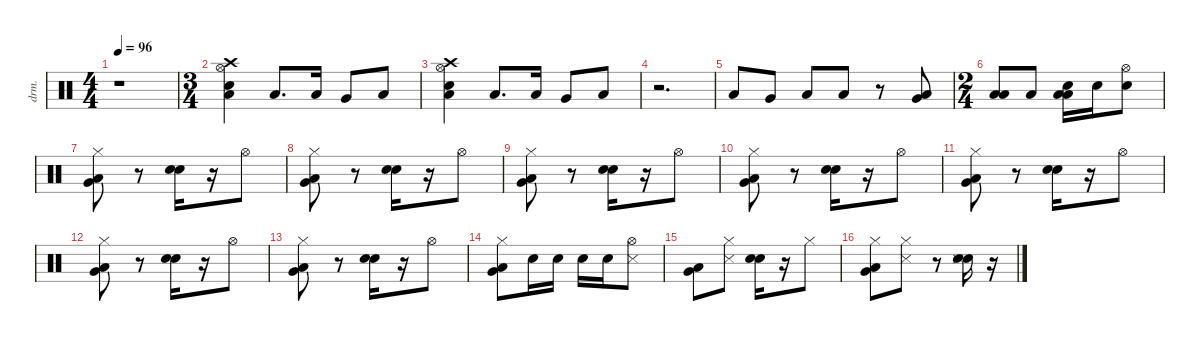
\defaultSystemsLayout 4
\hideDynamics
\bracketExtendMode nobrackets
\otherSystemsTrackNameOrientation horizontal
\track ("Percussion" "drm.") {instrument percussion}
\staff {score}
\articulation defaults
\ts (4 4)
\tempo 96
\clef neutral
\ks c
r.1{dy f} |
\ts (3 4)
("Crash high (hit)" "Hi-Hat (open)" "Snare (hit) 2" "Low Floor Tom (hit)").4 "Low Tom (hit)".8{d dy ff} "Low Tom (hit)".16 "Very Low Tom (hit)".8{dy fff} "Low Floor Tom (hit)".8{dy mp} |
("Crash high (hit)" "Hi-Hat (open)" "Snare (hit) 2" "Low Floor Tom (hit)").4{dy f} "Low Tom (hit)".8{d dy ff} "Low Tom (hit)".16 "Very Low Tom (hit)".8{dy fff} "Low Floor Tom (hit)".8{dy mp} |
r.2{d} |
"Low Tom (hit)".8{dy ff} "Very Low Tom (hit)".8 "Low Tom (hit)".8 "Low Tom (hit)".8{dy f} r.8 ("Very Low Tom (hit)" "Low Tom (hit)").8{dy fff} |
\ts (2 4)
("Low Floor Tom (hit)" "Low Tom (hit)").8{dy f} "Low Floor Tom (hit)".8 ("Snare (hit) 2" "Low Floor Tom (hit)" "Low Tom (hit)").16 "Snare (hit) 2".16{dy ff} ("Hi-Hat (open)" "Snare (hit) 2").8 |
("Hi-Hat (closed)" "Very Low Tom (hit)" "Low Floor Tom (hit)").8{dy f} r.8 ("Snare (hit) 2" "Snare (hit) 2").16{dy fff} r.16 "Hi-Hat (open)".8{dy f} |
("Hi-Hat (closed)" "Very Low Tom (hit)" "Low Floor Tom (hit)").8 r.8 ("Snare (hit) 2" "Snare (hit) 2").16{dy fff} r.16 "Hi-Hat (open)".8{dy f} |
("Hi-Hat (closed)" "Very Low Tom (hit)" "Low Floor Tom (hit)").8 r.8 ("Snare (hit) 2" "Snare (hit) 2").16{dy fff} r.16 "Hi-Hat (open)".8{dy f} |
("Hi-Hat (closed)" "Very Low Tom (hit)" "Low Floor Tom (hit)").8 r.8 ("Snare (hit) 2" "Snare (hit) 2").16{dy fff} r.16 "Hi-Hat (open)".8{dy f} |
("Hi-Hat (closed)" "Very Low Tom (hit)" "Low Floor Tom (hit)").8 r.8 ("Snare (hit) 2" "Snare (hit) 2").16{dy fff} r.16 "Hi-Hat (open)".8{dy f} |
("Hi-Hat (closed)" "Very Low Tom (hit)" "Low Floor Tom (hit)").8 r.8 ("Snare (hit) 2" "Snare (hit) 2").16{dy fff} r.16 "Hi-Hat (open)".8{dy f} |
("Hi-Hat (closed)" "Very Low Tom (hit)" "Low Floor Tom (hit)").8 r.8 ("Snare (hit) 2" "Snare (hit) 2").16{dy fff} r.16 "Hi-Hat (open)".8{dy f} |
("Hi-Hat (closed)" "Very Low Tom (hit)" "Low Floor Tom (hit)").8 "Snare (hit) 2".16{dy ff} "Snare (hit) 2".16 "Snare (hit) 2".16 "Snare (hit) 2".16 ("Hi-Hat (open)" "Snare (side stick) 3").8{dy fff} |
("Very Low Tom (hit)" "Low Floor Tom (hit)").8{dy f} ("Hi-Hat (closed)" "Snare (side stick) 3").8 ("Snare (hit) 2" "Snare (hit) 2").16{dy fff} r.16 "Hi-Hat (closed)".8{dy mp} |
("Hi-Hat (closed)" "Very Low Tom (hit)" "Low Floor Tom (hit)").8{dy f} ("Hi-Hat (closed)" "Snare (side stick) 3").8 r.8 ("Snare (hit) 2" "Snare (hit) 2" "Snare (side stick) 3").16{dy fff} r.16
